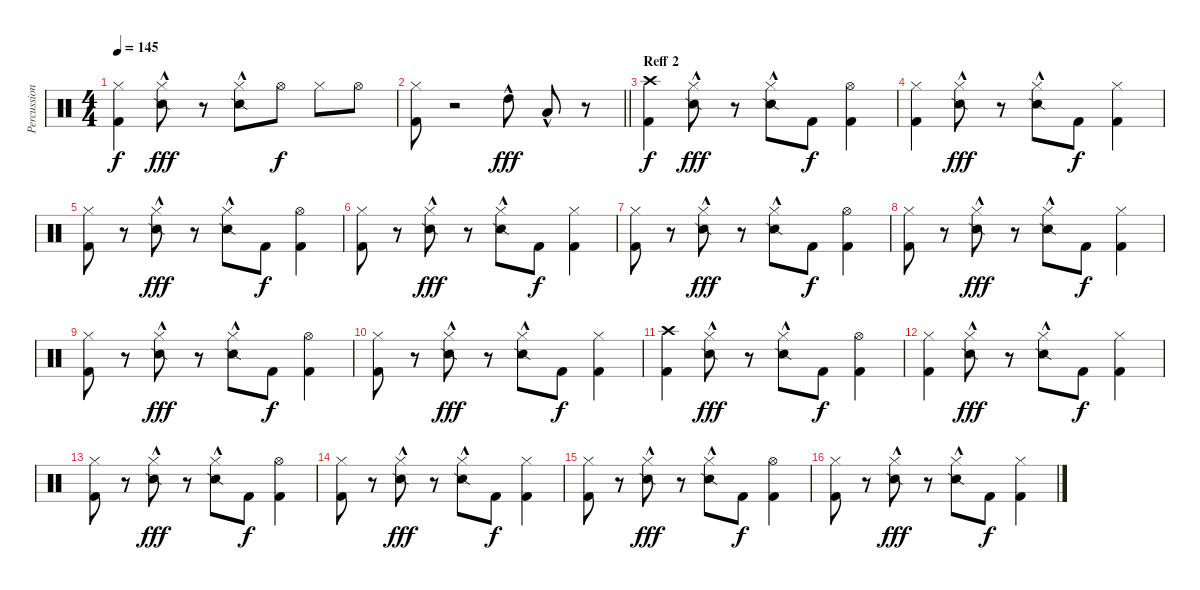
\track ("Percussion 1" "Percussion") {instrument percussion}
\staff {score}
\articulation defaults
\ts (4 4)
\tempo 145
\clef neutral
\ks c
("Hi-Hat (closed)" "Kick (hit) 2").4{dy f} ("Hi-Hat (closed)" "Snare (side stick) 2"{hac}).8{dy fff} r.8 ("Hi-Hat (closed)" "Snare (side stick) 2"{hac}).8 "Hi-Hat (open)".8{dy f} "Hi-Hat (closed)".8 "Hi-Hat (open)".8 |
\barLineRight lightlight
("Hi-Hat (closed)" "Kick (hit) 2").8 r.2 "High Tom (hit)"{hac}.8{dy fff} "Low Tom (hit)"{hac}.8 r.8 |
\section ("" "Reff 2")
("Crash high (hit)" "Kick (hit) 2").4{dy f} ("Hi-Hat (closed)" "Snare (side stick) 2"{hac}).8{dy fff} r.8 ("Hi-Hat (closed)" "Snare (side stick) 2"{hac}).8 "Kick (hit) 2".8{dy f} ("Hi-Hat (open)" "Kick (hit) 2").4 |
("Hi-Hat (closed)" "Kick (hit) 2").4 ("Hi-Hat (closed)" "Snare (side stick) 2"{hac}).8{dy fff} r.8 ("Hi-Hat (closed)" "Snare (side stick) 2"{hac}).8 "Kick (hit) 2".8{dy f} ("Hi-Hat (closed)" "Kick (hit) 2").4 |
("Hi-Hat (closed)" "Kick (hit) 2").8 r.8 ("Hi-Hat (closed)" "Snare (side stick) 2"{hac}).8{dy fff} r.8 ("Hi-Hat (closed)" "Snare (side stick) 2"{hac}).8 "Kick (hit) 2".8{dy f} ("Hi-Hat (open)" "Kick (hit) 2").4 |
("Hi-Hat (closed)" "Kick (hit) 2").8 r.8 ("Hi-Hat (closed)" "Snare (side stick) 2"{hac}).8{dy fff} r.8 ("Hi-Hat (closed)" "Snare (side stick) 2"{hac}).8 "Kick (hit) 2".8{dy f} ("Hi-Hat (closed)" "Kick (hit) 2").4 |
("Hi-Hat (closed)" "Kick (hit) 2").8 r.8 ("Hi-Hat (closed)" "Snare (side stick) 2"{hac}).8{dy fff} r.8 ("Hi-Hat (closed)" "Snare (side stick) 2"{hac}).8 "Kick (hit) 2".8{dy f} ("Hi-Hat (open)" "Kick (hit) 2").4 |
("Hi-Hat (closed)" "Kick (hit) 2").8 r.8 ("Hi-Hat (closed)" "Snare (side stick) 2"{hac}).8{dy fff} r.8 ("Hi-Hat (closed)" "Snare (side stick) 2"{hac}).8 "Kick (hit) 2".8{dy f} ("Hi-Hat (closed)" "Kick (hit) 2").4 |
("Hi-Hat (closed)" "Kick (hit) 2").8 r.8 ("Hi-Hat (closed)" "Snare (side stick) 2"{hac}).8{dy fff} r.8 ("Hi-Hat (closed)" "Snare (side stick) 2"{hac}).8 "Kick (hit) 2".8{dy f} ("Hi-Hat (open)" "Kick (hit) 2").4 |
("Hi-Hat (closed)" "Kick (hit) 2").8 r.8 ("Hi-Hat (closed)" "Snare (side stick) 2"{hac}).8{dy fff} r.8 ("Hi-Hat (closed)" "Snare (side stick) 2"{hac}).8 "Kick (hit) 2".8{dy f} ("Hi-Hat (closed)" "Kick (hit) 2").4 |
("Crash high (hit)" "Kick (hit) 2").4 ("Hi-Hat (closed)" "Snare (side stick) 2"{hac}).8{dy fff} r.8 ("Hi-Hat (closed)" "Snare (side stick) 2"{hac}).8 "Kick (hit) 2".8{dy f} ("Hi-Hat (open)" "Kick (hit) 2").4 |
("Hi-Hat (closed)" "Kick (hit) 2").4 ("Hi-Hat (closed)" "Snare (side stick) 2"{hac}).8{dy fff} r.8 ("Hi-Hat (closed)" "Snare (side stick) 2"{hac}).8 "Kick (hit) 2".8{dy f} ("Hi-Hat (closed)" "Kick (hit) 2").4 |
("Hi-Hat (closed)" "Kick (hit) 2").8 r.8 ("Hi-Hat (closed)" "Snare (side stick) 2"{hac}).8{dy fff} r.8 ("Hi-Hat (closed)" "Snare (side stick) 2"{hac}).8 "Kick (hit) 2".8{dy f} ("Hi-Hat (open)" "Kick (hit) 2").4 |
("Hi-Hat (closed)" "Kick (hit) 2").8 r.8 ("Hi-Hat (closed)" "Snare (side stick) 2"{hac}).8{dy fff} r.8 ("Hi-Hat (closed)" "Snare (side stick) 2"{hac}).8 "Kick (hit) 2".8{dy f} ("Hi-Hat (closed)" "Kick (hit) 2").4 |
("Hi-Hat (closed)" "Kick (hit) 2").8 r.8 ("Hi-Hat (closed)" "Snare (side stick) 2"{hac}).8{dy fff} r.8 ("Hi-Hat (closed)" "Snare (side stick) 2"{hac}).8 "Kick (hit) 2".8{dy f} ("Hi-Hat (open)" "Kick (hit) 2").4 |
("Hi-Hat (closed)" "Kick (hit) 2").8 r.8 ("Hi-Hat (closed)" "Snare (side stick) 2"{hac}).8{dy fff} r.8 ("Hi-Hat (closed)" "Snare (side stick) 2"{hac}).8 "Kick (hit) 2".8{dy f} ("Hi-Hat (closed)" "Kick (hit) 2").4
